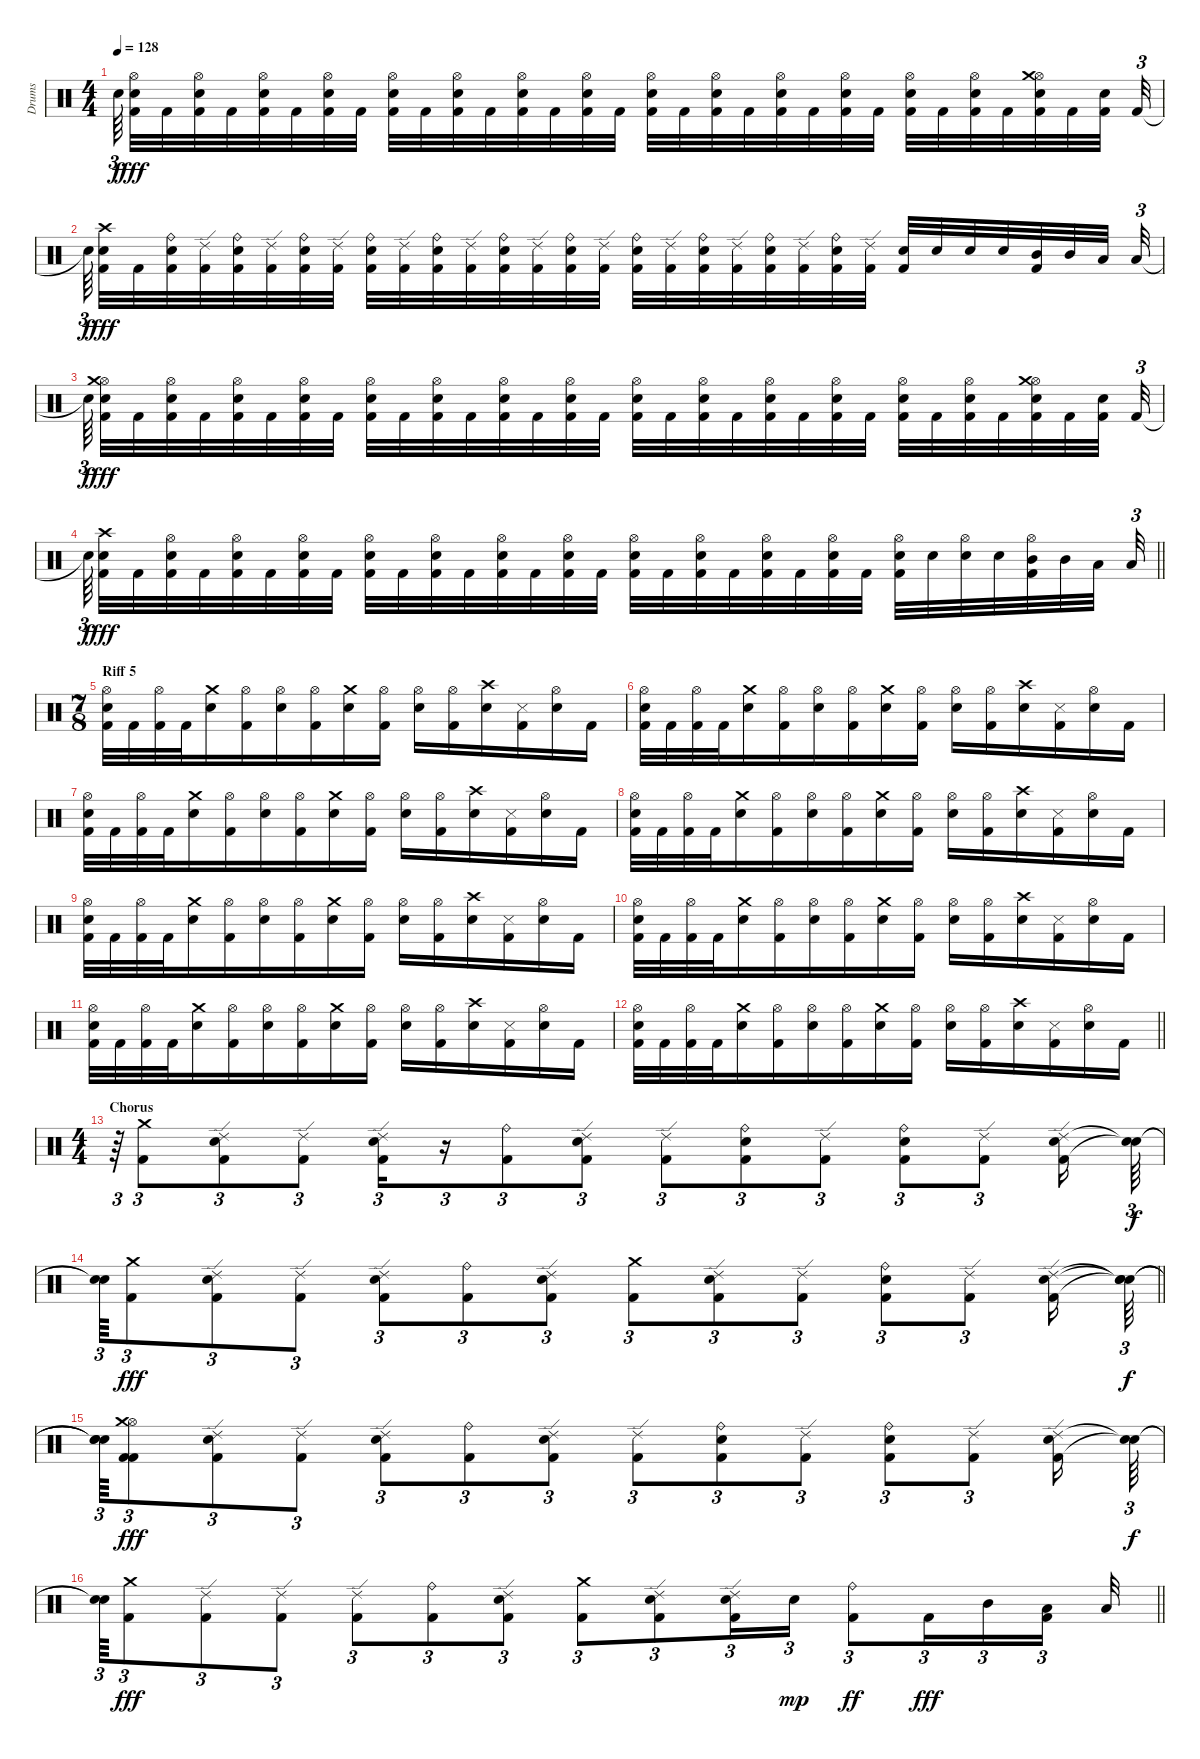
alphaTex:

\track ("Drums" "Drums") {instrument percussion}
\staff {score}
\articulation defaults
\ts (4 4)
\tempo 128
\clef neutral
\ks c "Snare (hit)"{t}.64{tu (3 2) dy f beam splitsecondary}
("Kick (hit) 2" "Snare (hit) 2" "Hi-Hat (open)").32{dy fff} "Kick (hit) 2".32 ("Kick (hit) 2" "Snare (hit) 2" "Hi-Hat (open)").32 "Kick (hit) 2".32 ("Kick (hit) 2" "Snare (hit) 2" "Hi-Hat (open)").32 "Kick (hit) 2".32 ("Kick (hit) 2" "Snare (hit) 2" "Hi-Hat (open)").32 "Kick (hit) 2".32 ("Kick (hit) 2" "Snare (hit) 2" "Hi-Hat (open)").32 "Kick (hit) 2".32 ("Kick (hit) 2" "Snare (hit) 2" "Hi-Hat (open)").32 "Kick (hit) 2".32 ("Kick (hit) 2" "Snare (hit) 2" "Hi-Hat (open)").32 "Kick (hit) 2".32 ("Kick (hit) 2" "Snare (hit) 2" "Hi-Hat (open)").32 "Kick (hit) 2".32 ("Kick (hit) 2" "Snare (hit) 2" "Hi-Hat (open)").32 "Kick (hit) 2".32 ("Kick (hit) 2" "Snare (hit) 2" "Hi-Hat (open)").32 "Kick (hit) 2".32 ("Kick (hit) 2" "Snare (hit) 2" "Hi-Hat (open)").32 "Kick (hit) 2".32 ("Kick (hit) 2" "Snare (hit) 2" "Hi-Hat (open)").32 "Kick (hit) 2".32 ("Kick (hit) 2" "Snare (hit) 2" "Hi-Hat (open)").32 "Kick (hit) 2".32 ("Kick (hit) 2" "Snare (hit) 2" "Hi-Hat (open)").32 "Kick (hit) 2".32 ("Kick (hit) 2" "Snare (hit) 2" "Hi-Hat (open)" "Crash medium (hit)").32 "Kick (hit) 2".32 ("Kick (hit) 2" "Snare (hit) 2").32{beam splitsecondary} "Kick (hit) 2".32{tu (3 2)} |
"Snare (hit)"{t}.64{tu (3 2) dy f beam splitsecondary} ("Kick (hit) 2" "Snare (hit) 2" "Crash high (hit)").32{dy fff} "Kick (hit) 2".32 ("Kick (hit) 2" "Snare (hit) 2" "Ride (bell)").32 ("Kick (hit) 2" "Ride (edge) 2").32 ("Kick (hit) 2" "Snare (hit) 2" "Ride (bell)").32 ("Kick (hit) 2" "Ride (edge) 2").32 ("Kick (hit) 2" "Snare (hit) 2" "Ride (bell)").32 ("Kick (hit) 2" "Ride (edge) 2").32 ("Kick (hit) 2" "Snare (hit) 2" "Ride (bell)").32 ("Kick (hit) 2" "Ride (edge) 2").32 ("Kick (hit) 2" "Snare (hit) 2" "Ride (bell)").32 ("Kick (hit) 2" "Ride (edge) 2").32 ("Kick (hit) 2" "Snare (hit) 2" "Ride (bell)").32 ("Kick (hit) 2" "Ride (edge) 2").32 ("Kick (hit) 2" "Snare (hit) 2" "Ride (bell)").32 ("Kick (hit) 2" "Ride (edge) 2").32 ("Kick (hit) 2" "Snare (hit) 2" "Ride (bell)").32 ("Kick (hit) 2" "Ride (edge) 2").32 ("Kick (hit) 2" "Snare (hit) 2" "Ride (bell)").32 ("Kick (hit) 2" "Ride (edge) 2").32 ("Kick (hit) 2" "Snare (hit) 2" "Ride (bell)").32 ("Kick (hit) 2" "Ride (edge) 2").32 ("Kick (hit) 2" "Snare (hit) 2" "Ride (bell)").32 ("Kick (hit) 2" "Ride (edge) 2").32 ("Kick (hit) 2" "Snare (hit) 2").32 "Snare (hit) 2".32 "Snare (hit) 2".32 "Snare (hit) 2".32 ("Kick (hit) 2" "Mid Tom (hit)").32 "Mid Tom (hit)".32 "Low Tom (hit)".32{beam splitsecondary} "Low Tom (hit)".32{tu (3 2)} |
"Snare (hit)"{t}.64{tu (3 2) dy f beam splitsecondary} ("Kick (hit) 2" "Snare (hit) 2" "Hi-Hat (open)" "Crash medium (hit)").32{dy fff} "Kick (hit) 2".32 ("Kick (hit) 2" "Snare (hit) 2" "Hi-Hat (open)").32 "Kick (hit) 2".32 ("Kick (hit) 2" "Snare (hit) 2" "Hi-Hat (open)").32 "Kick (hit) 2".32 ("Kick (hit) 2" "Snare (hit) 2" "Hi-Hat (open)").32 "Kick (hit) 2".32 ("Kick (hit) 2" "Snare (hit) 2" "Hi-Hat (open)").32 "Kick (hit) 2".32 ("Kick (hit) 2" "Snare (hit) 2" "Hi-Hat (open)").32 "Kick (hit) 2".32 ("Kick (hit) 2" "Snare (hit) 2" "Hi-Hat (open)").32 "Kick (hit) 2".32 ("Kick (hit) 2" "Snare (hit) 2" "Hi-Hat (open)").32 "Kick (hit) 2".32 ("Kick (hit) 2" "Snare (hit) 2" "Hi-Hat (open)").32 "Kick (hit) 2".32 ("Kick (hit) 2" "Snare (hit) 2" "Hi-Hat (open)").32 "Kick (hit) 2".32 ("Kick (hit) 2" "Snare (hit) 2" "Hi-Hat (open)").32 "Kick (hit) 2".32 ("Kick (hit) 2" "Snare (hit) 2" "Hi-Hat (open)").32 "Kick (hit) 2".32 ("Kick (hit) 2" "Snare (hit) 2" "Hi-Hat (open)").32 "Kick (hit) 2".32 ("Kick (hit) 2" "Snare (hit) 2" "Hi-Hat (open)").32 "Kick (hit) 2".32 ("Kick (hit) 2" "Snare (hit) 2" "Hi-Hat (open)" "Crash medium (hit)").32 "Kick (hit) 2".32 ("Kick (hit) 2" "Snare (hit) 2").32{beam splitsecondary} "Kick (hit) 2".32{tu (3 2)} |
\barLineRight lightlight "Snare (hit)"{t}.64{tu (3 2) dy f beam splitsecondary}
("Kick (hit) 2" "Snare (hit) 2" "Crash high (hit)").32{dy fff} "Kick (hit) 2".32 ("Kick (hit) 2" "Snare (hit) 2" "Hi-Hat (open)").32 "Kick (hit) 2".32 ("Kick (hit) 2" "Snare (hit) 2" "Hi-Hat (open)").32 "Kick (hit) 2".32 ("Kick (hit) 2" "Snare (hit) 2" "Hi-Hat (open)").32 "Kick (hit) 2".32 ("Kick (hit) 2" "Snare (hit) 2" "Hi-Hat (open)").32 "Kick (hit) 2".32 ("Kick (hit) 2" "Snare (hit) 2" "Hi-Hat (open)").32 "Kick (hit) 2".32 ("Kick (hit) 2" "Snare (hit) 2" "Hi-Hat (open)").32 "Kick (hit) 2".32 ("Kick (hit) 2" "Snare (hit) 2" "Hi-Hat (open)").32 "Kick (hit) 2".32 ("Kick (hit) 2" "Snare (hit) 2" "Hi-Hat (open)").32 "Kick (hit) 2".32 ("Kick (hit) 2" "Snare (hit) 2" "Hi-Hat (open)").32 "Kick (hit) 2".32 ("Kick (hit) 2" "Snare (hit) 2" "Hi-Hat (open)").32 "Kick (hit) 2".32 ("Kick (hit) 2" "Snare (hit) 2" "Hi-Hat (open)").32 "Kick (hit) 2".32 ("Kick (hit) 2" "Snare (hit) 2" "Hi-Hat (open)").32 "Snare (hit) 2".32 ("Snare (hit) 2" "Hi-Hat (open)").32 "Snare (hit) 2".32 ("Kick (hit) 2" "Hi-Hat (open)" "Mid Tom (hit)").32 "Mid Tom (hit)".32 "Low Tom (hit)".32{beam splitsecondary} "Low Tom (hit)".32{tu (3 2)} |
\ts (7 8)
\section ("" "Riff 5")
("Kick (hit) 2" "Snare (hit) 2" "Hi-Hat (open)").32 "Kick (hit) 2".32 ("Kick (hit) 2" "Hi-Hat (open)").32 "Kick (hit) 2".32 ("Snare (hit) 2" "Crash medium (hit)").16 ("Kick (hit) 2" "Hi-Hat (open)").16 ("Snare (hit) 2" "Hi-Hat (open)").16 ("Kick (hit) 2" "Hi-Hat (open)").16 ("Snare (hit) 2" "Crash medium (hit)").16 ("Kick (hit) 2" "Hi-Hat (open)").16 ("Snare (hit) 2" "Hi-Hat (open)").16 ("Kick (hit) 2" "Hi-Hat (open)").16 ("Snare (hit) 2" "Crash high (hit)").16 ("Kick (hit) 2" "Snare (side stick) 3").16 ("Snare (hit) 2" "Hi-Hat (open)").16 "Kick (hit) 2".16 |
("Kick (hit) 2" "Snare (hit) 2" "Hi-Hat (open)").32 "Kick (hit) 2".32 ("Kick (hit) 2" "Hi-Hat (open)").32 "Kick (hit) 2".32 ("Snare (hit) 2" "Crash medium (hit)").16 ("Kick (hit) 2" "Hi-Hat (open)").16 ("Snare (hit) 2" "Hi-Hat (open)").16 ("Kick (hit) 2" "Hi-Hat (open)").16 ("Snare (hit) 2" "Crash medium (hit)").16 ("Kick (hit) 2" "Hi-Hat (open)").16 ("Snare (hit) 2" "Hi-Hat (open)").16 ("Kick (hit) 2" "Hi-Hat (open)").16 ("Snare (hit) 2" "Crash high (hit)").16 ("Kick (hit) 2" "Snare (side stick) 3").16 ("Snare (hit) 2" "Hi-Hat (open)").16 "Kick (hit) 2".16 |
("Kick (hit) 2" "Snare (hit) 2" "Hi-Hat (open)").32 "Kick (hit) 2".32 ("Kick (hit) 2" "Hi-Hat (open)").32 "Kick (hit) 2".32 ("Snare (hit) 2" "Crash medium (hit)").16 ("Kick (hit) 2" "Hi-Hat (open)").16 ("Snare (hit) 2" "Hi-Hat (open)").16 ("Kick (hit) 2" "Hi-Hat (open)").16 ("Snare (hit) 2" "Crash medium (hit)").16 ("Kick (hit) 2" "Hi-Hat (open)").16 ("Snare (hit) 2" "Hi-Hat (open)").16 ("Kick (hit) 2" "Hi-Hat (open)").16 ("Snare (hit) 2" "Crash high (hit)").16 ("Kick (hit) 2" "Snare (side stick) 3").16 ("Snare (hit) 2" "Hi-Hat (open)").16 "Kick (hit) 2".16 |
("Kick (hit) 2" "Snare (hit) 2" "Hi-Hat (open)").32 "Kick (hit) 2".32 ("Kick (hit) 2" "Hi-Hat (open)").32 "Kick (hit) 2".32 ("Snare (hit) 2" "Crash medium (hit)").16 ("Kick (hit) 2" "Hi-Hat (open)").16 ("Snare (hit) 2" "Hi-Hat (open)").16 ("Kick (hit) 2" "Hi-Hat (open)").16 ("Snare (hit) 2" "Crash medium (hit)").16 ("Kick (hit) 2" "Hi-Hat (open)").16 ("Snare (hit) 2" "Hi-Hat (open)").16 ("Kick (hit) 2" "Hi-Hat (open)").16 ("Snare (hit) 2" "Crash high (hit)").16 ("Kick (hit) 2" "Snare (side stick) 3").16 ("Snare (hit) 2" "Hi-Hat (open)").16 "Kick (hit) 2".16 |
("Kick (hit) 2" "Snare (hit) 2" "Hi-Hat (open)").32 "Kick (hit) 2".32 ("Kick (hit) 2" "Hi-Hat (open)").32 "Kick (hit) 2".32 ("Snare (hit) 2" "Crash medium (hit)").16 ("Kick (hit) 2" "Hi-Hat (open)").16 ("Snare (hit) 2" "Hi-Hat (open)").16 ("Kick (hit) 2" "Hi-Hat (open)").16 ("Snare (hit) 2" "Crash medium (hit)").16 ("Kick (hit) 2" "Hi-Hat (open)").16 ("Snare (hit) 2" "Hi-Hat (open)").16 ("Kick (hit) 2" "Hi-Hat (open)").16 ("Snare (hit) 2" "Crash high (hit)").16 ("Kick (hit) 2" "Snare (side stick) 3").16 ("Snare (hit) 2" "Hi-Hat (open)").16 "Kick (hit) 2".16 |
("Kick (hit) 2" "Snare (hit) 2" "Hi-Hat (open)").32 "Kick (hit) 2".32 ("Kick (hit) 2" "Hi-Hat (open)").32 "Kick (hit) 2".32 ("Snare (hit) 2" "Crash medium (hit)").16 ("Kick (hit) 2" "Hi-Hat (open)").16 ("Snare (hit) 2" "Hi-Hat (open)").16 ("Kick (hit) 2" "Hi-Hat (open)").16 ("Snare (hit) 2" "Crash medium (hit)").16 ("Kick (hit) 2" "Hi-Hat (open)").16 ("Snare (hit) 2" "Hi-Hat (open)").16 ("Kick (hit) 2" "Hi-Hat (open)").16 ("Snare (hit) 2" "Crash high (hit)").16 ("Kick (hit) 2" "Snare (side stick) 3").16 ("Snare (hit) 2" "Hi-Hat (open)").16 "Kick (hit) 2".16 |
("Kick (hit) 2" "Snare (hit) 2" "Hi-Hat (open)").32 "Kick (hit) 2".32 ("Kick (hit) 2" "Hi-Hat (open)").32 "Kick (hit) 2".32 ("Snare (hit) 2" "Crash medium (hit)").16 ("Kick (hit) 2" "Hi-Hat (open)").16 ("Snare (hit) 2" "Hi-Hat (open)").16 ("Kick (hit) 2" "Hi-Hat (open)").16 ("Snare (hit) 2" "Crash medium (hit)").16 ("Kick (hit) 2" "Hi-Hat (open)").16 ("Snare (hit) 2" "Hi-Hat (open)").16 ("Kick (hit) 2" "Hi-Hat (open)").16 ("Snare (hit) 2" "Crash high (hit)").16 ("Kick (hit) 2" "Snare (side stick) 3").16 ("Snare (hit) 2" "Hi-Hat (open)").16 "Kick (hit) 2".16 |
\barLineRight lightlight
("Kick (hit) 2" "Snare (hit) 2" "Hi-Hat (open)").32 "Kick (hit) 2".32 ("Kick (hit) 2" "Hi-Hat (open)").32 "Kick (hit) 2".32 ("Snare (hit) 2" "Crash medium (hit)").16 ("Kick (hit) 2" "Hi-Hat (open)").16 ("Snare (hit) 2" "Hi-Hat (open)").16 ("Kick (hit) 2" "Hi-Hat (open)").16 ("Snare (hit) 2" "Crash medium (hit)").16 ("Kick (hit) 2" "Hi-Hat (open)").16 ("Snare (hit) 2" "Hi-Hat (open)").16 ("Kick (hit) 2" "Hi-Hat (open)").16 ("Snare (hit) 2" "Crash high (hit)").16 ("Kick (hit) 2" "Snare (side stick) 3").16 ("Snare (hit) 2" "Hi-Hat (open)").16 "Kick (hit) 2".16 |
\ts (4 4)
\section ("" "Chorus")
r.64{tu (3 2)} ("Kick (hit) 2" "Crash medium (hit)").8{tu (3 2)} ("Kick (hit) 2" "Ride (edge) 2" "Snare (hit) 2").8{tu (3 2)} ("Kick (hit) 2" "Ride (edge) 2").8{tu (3 2)} ("Kick (hit) 2" "Ride (edge) 2" "Snare (hit) 2").16{tu (3 2)} r.16{tu (3 2)} ("Kick (hit) 2" "Ride (bell)").8{tu (3 2)} ("Kick (hit) 2" "Ride (edge) 2" "Snare (hit) 2").8{tu (3 2)} ("Kick (hit) 2" "Ride (edge) 2").8{tu (3 2)} ("Kick (hit) 2" "Ride (bell)" "Snare (hit) 2").8{tu (3 2)} ("Kick (hit) 2" "Ride (edge) 2").8{tu (3 2)} ("Kick (hit) 2" "Ride (bell)" "Snare (hit) 2").8{tu (3 2)} ("Kick (hit) 2" "Ride (edge) 2").8{tu (3 2)} ("Kick (hit) 2" "Ride (edge) 2" "Snare (hit) 2").16 ("Snare (hit)"{t} "Snare (hit)"{t}).64{tu (3 2) dy f} |
\barLineRight lightlight
("Snare (hit)"{t} "Snare (hit)"{t}).64{tu (3 2)} ("Kick (hit) 2" "Crash medium (hit)").8{tu (3 2) dy fff} ("Kick (hit) 2" "Ride (edge) 2" "Snare (hit) 2").8{tu (3 2)} ("Kick (hit) 2" "Ride (edge) 2").8{tu (3 2)} ("Kick (hit) 2" "Ride (edge) 2" "Snare (hit) 2").8{tu (3 2)} ("Kick (hit) 2" "Ride (bell)").8{tu (3 2)} ("Kick (hit) 2" "Snare (hit) 2" "Ride (edge) 2").8{tu (3 2)} ("Kick (hit) 2" "Crash medium (hit)").8{tu (3 2)} ("Kick (hit) 2" "Snare (hit) 2" "Ride (edge) 2").8{tu (3 2)} ("Kick (hit) 2" "Ride (edge) 2").8{tu (3 2)} ("Kick (hit) 2" "Ride (bell)" "Snare (hit) 2").8{tu (3 2)} ("Kick (hit) 2" "Ride (edge) 2").8{tu (3 2)} ("Kick (hit) 2" "Snare (hit) 2" "Ride (edge) 2").16 ("Snare (hit)"{t} "Snare (hit)"{t} "Snare (hit)"{t}).64{tu (3 2) dy f} |
("Snare (hit)"{t} "Snare (hit)"{t} "Snare (hit)"{t}).64{tu (3 2)} ("Kick (hit) 2" "Hi-Hat (open)" "Kick (hit) 2" "Crash medium (hit)").8{tu (3 2) dy fff} ("Kick (hit) 2" "Ride (edge) 2" "Snare (hit) 2").8{tu (3 2)} ("Kick (hit) 2" "Ride (edge) 2").8{tu (3 2)} ("Kick (hit) 2" "Ride (edge) 2" "Snare (hit) 2").8{tu (3 2)} ("Kick (hit) 2" "Ride (bell)").8{tu (3 2)} ("Kick (hit) 2" "Ride (edge) 2" "Snare (hit) 2").8{tu (3 2)} ("Kick (hit) 2" "Ride (edge) 2").8{tu (3 2)} ("Kick (hit) 2" "Ride (bell)" "Snare (hit) 2").8{tu (3 2)} ("Kick (hit) 2" "Ride (edge) 2").8{tu (3 2)} ("Kick (hit) 2" "Ride (bell)" "Snare (hit) 2").8{tu (3 2)} ("Kick (hit) 2" "Ride (edge) 2").8{tu (3 2)} ("Kick (hit) 2" "Ride (edge) 2" "Snare (hit) 2").16 ("Snare (hit)"{t} "Snare (hit)"{t}).64{tu (3 2) dy f} |
\barLineRight lightlight
("Snare (hit)"{t} "Snare (hit)"{t}).64{tu (3 2)} ("Kick (hit) 2" "Crash medium (hit)").8{tu (3 2) dy fff} ("Kick (hit) 2" "Ride (edge) 2").8{tu (3 2)} ("Kick (hit) 2" "Ride (edge) 2").8{tu (3 2)} ("Kick (hit) 2" "Ride (edge) 2").8{tu (3 2)} ("Kick (hit) 2" "Ride (bell)").8{tu (3 2)} ("Kick (hit) 2" "Snare (hit) 2" "Ride (edge) 2").8{tu (3 2)} ("Kick (hit) 2" "Crash medium (hit)").8{tu (3 2)} ("Kick (hit) 2" "Snare (hit) 2" "Ride (edge) 2").8{tu (3 2)} ("Kick (hit) 2" "Snare (hit) 2" "Ride (edge) 2").16{tu (3 2)} "Snare (hit) 2".16{tu (3 2) dy mp} ("Kick (hit) 2" "Ride (bell)").8{tu (3 2) dy ff} "Kick (hit) 2".16{tu (3 2) dy fff} "Mid Tom (hit)".16{tu (3 2)} ("Kick (hit) 2" "Low Tom (hit)").16{tu (3 2) beam splitsecondary} "Low Tom (hit)".32
